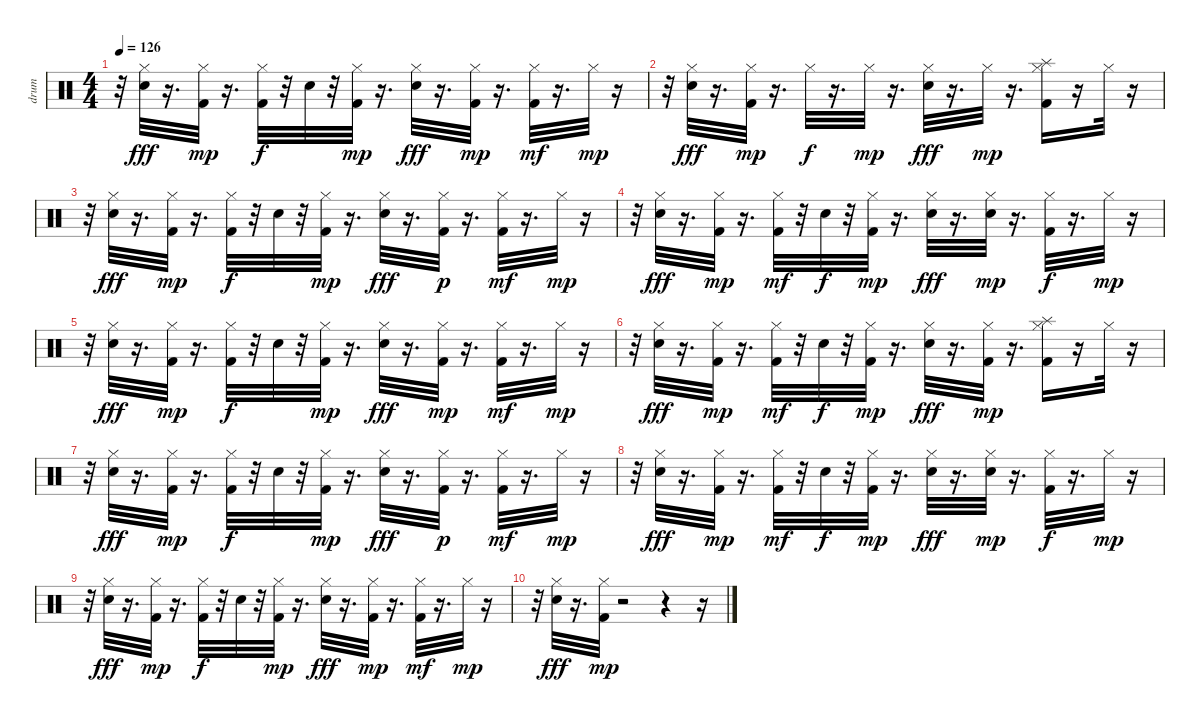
\track ("drum" "drum") {instrument percussion}
\staff {score}
\articulation defaults
\ts (4 4)
\tempo 126
\clef neutral
\ks c
r.32{dy mp} ("Electric Snare (hit)" "Hi-Hat (closed)").32{dy fff} r.16{d} ("Kick (hit) 2" "Hi-Hat (closed)").32{dy mp} r.16{d} ("Kick (hit) 2" "Hi-Hat (closed)").32{dy f} r.32 "Electric Snare (hit)".32 r.32 ("Kick (hit) 2" "Hi-Hat (closed)").32{dy mp} r.16{d} ("Electric Snare (hit)" "Hi-Hat (closed)").32{dy fff} r.16{d} ("Kick (hit) 2" "Hi-Hat (closed)").32{dy mp} r.16{d} ("Kick (hit) 2" "Hi-Hat (closed)").32{dy mf} r.16{d} "Hi-Hat (closed)".32{dy mp} r.16 |
r.32 ("Electric Snare (hit)" "Hi-Hat (closed)").32{dy fff} r.16{d} ("Kick (hit) 2" "Hi-Hat (closed)").32{dy mp} r.16{d} "Hi-Hat (closed)".32{dy f} r.16{d} "Hi-Hat (closed)".32{dy mp} r.16{d} ("Electric Snare (hit)" "Hi-Hat (closed)").32{dy fff} r.16{d} "Hi-Hat (closed)".32{dy mp} r.16{d} ("Splash (hit)" "Kick (hit) 2" "Hi-Hat (closed)").16 r.16 "Hi-Hat (closed)".32 r.16 |
r.32 ("Electric Snare (hit)" "Hi-Hat (closed)").32{dy fff} r.16{d} ("Kick (hit) 2" "Hi-Hat (closed)").32{dy mp} r.16{d} ("Kick (hit) 2" "Hi-Hat (closed)").32{dy f} r.32 "Electric Snare (hit)".32 r.32 ("Kick (hit) 2" "Hi-Hat (closed)").32{dy mp} r.16{d} ("Electric Snare (hit)" "Hi-Hat (closed)").32{dy fff} r.16{d} ("Kick (hit) 2" "Hi-Hat (closed)").32{dy p} r.16{d} ("Kick (hit) 2" "Hi-Hat (closed)").32{dy mf} r.16{d} "Hi-Hat (closed)".32{dy mp} r.16 |
r.32 ("Electric Snare (hit)" "Hi-Hat (closed)").32{dy fff} r.16{d} ("Kick (hit) 2" "Hi-Hat (closed)").32{dy mp} r.16{d} ("Kick (hit) 2" "Hi-Hat (closed)").32{dy mf} r.32 "Electric Snare (hit)".32{dy f} r.32 ("Kick (hit) 2" "Hi-Hat (closed)").32{dy mp} r.16{d} ("Electric Snare (hit)" "Hi-Hat (closed)").32{dy fff} r.16{d} ("Electric Snare (hit)" "Hi-Hat (closed)").32{dy mp} r.16{d} ("Kick (hit) 2" "Hi-Hat (closed)").32{dy f} r.16{d} "Hi-Hat (closed)".32{dy mp} r.16 |
r.32 ("Electric Snare (hit)" "Hi-Hat (closed)").32{dy fff} r.16{d} ("Kick (hit) 2" "Hi-Hat (closed)").32{dy mp} r.16{d} ("Kick (hit) 2" "Hi-Hat (closed)").32{dy f} r.32 "Electric Snare (hit)".32 r.32 ("Kick (hit) 2" "Hi-Hat (closed)").32{dy mp} r.16{d} ("Electric Snare (hit)" "Hi-Hat (closed)").32{dy fff} r.16{d} ("Kick (hit) 2" "Hi-Hat (closed)").32{dy mp} r.16{d} ("Kick (hit) 2" "Hi-Hat (closed)").32{dy mf} r.16{d} "Hi-Hat (closed)".32{dy mp} r.16 |
r.32 ("Electric Snare (hit)" "Hi-Hat (closed)").32{dy fff} r.16{d} ("Kick (hit) 2" "Hi-Hat (closed)").32{dy mp} r.16{d} ("Kick (hit) 2" "Hi-Hat (closed)").32{dy mf} r.32 "Electric Snare (hit)".32{dy f} r.32 ("Kick (hit) 2" "Hi-Hat (closed)").32{dy mp} r.16{d} ("Electric Snare (hit)" "Hi-Hat (closed)").32{dy fff} r.16{d} ("Kick (hit) 2" "Hi-Hat (closed)").32{dy mp} r.16{d} ("Splash (hit)" "Kick (hit) 2" "Hi-Hat (closed)").16 r.16 "Hi-Hat (closed)".32 r.16 |
r.32 ("Electric Snare (hit)" "Hi-Hat (closed)").32{dy fff} r.16{d} ("Kick (hit) 2" "Hi-Hat (closed)").32{dy mp} r.16{d} ("Kick (hit) 2" "Hi-Hat (closed)").32{dy f} r.32 "Electric Snare (hit)".32 r.32 ("Kick (hit) 2" "Hi-Hat (closed)").32{dy mp} r.16{d} ("Electric Snare (hit)" "Hi-Hat (closed)").32{dy fff} r.16{d} ("Kick (hit) 2" "Hi-Hat (closed)").32{dy p} r.16{d} ("Kick (hit) 2" "Hi-Hat (closed)").32{dy mf} r.16{d} "Hi-Hat (closed)".32{dy mp} r.16 |
r.32 ("Electric Snare (hit)" "Hi-Hat (closed)").32{dy fff} r.16{d} ("Kick (hit) 2" "Hi-Hat (closed)").32{dy mp} r.16{d} ("Kick (hit) 2" "Hi-Hat (closed)").32{dy mf} r.32 "Electric Snare (hit)".32{dy f} r.32 ("Kick (hit) 2" "Hi-Hat (closed)").32{dy mp} r.16{d} ("Electric Snare (hit)" "Hi-Hat (closed)").32{dy fff} r.16{d} ("Electric Snare (hit)" "Hi-Hat (closed)").32{dy mp} r.16{d} ("Kick (hit) 2" "Hi-Hat (closed)").32{dy f} r.16{d} "Hi-Hat (closed)".32{dy mp} r.16 |
r.32 ("Electric Snare (hit)" "Hi-Hat (closed)").32{dy fff} r.16{d} ("Kick (hit) 2" "Hi-Hat (closed)").32{dy mp} r.16{d} ("Kick (hit) 2" "Hi-Hat (closed)").32{dy f} r.32 "Electric Snare (hit)".32 r.32 ("Kick (hit) 2" "Hi-Hat (closed)").32{dy mp} r.16{d} ("Electric Snare (hit)" "Hi-Hat (closed)").32{dy fff} r.16{d} ("Kick (hit) 2" "Hi-Hat (closed)").32{dy mp} r.16{d} ("Kick (hit) 2" "Hi-Hat (closed)").32{dy mf} r.16{d} "Hi-Hat (closed)".32{dy mp} r.16 |
r.32 ("Electric Snare (hit)" "Hi-Hat (closed)").32{dy fff} r.16{d} ("Kick (hit) 2" "Hi-Hat (closed)").32{dy mp} r.2 r.4 r.16
